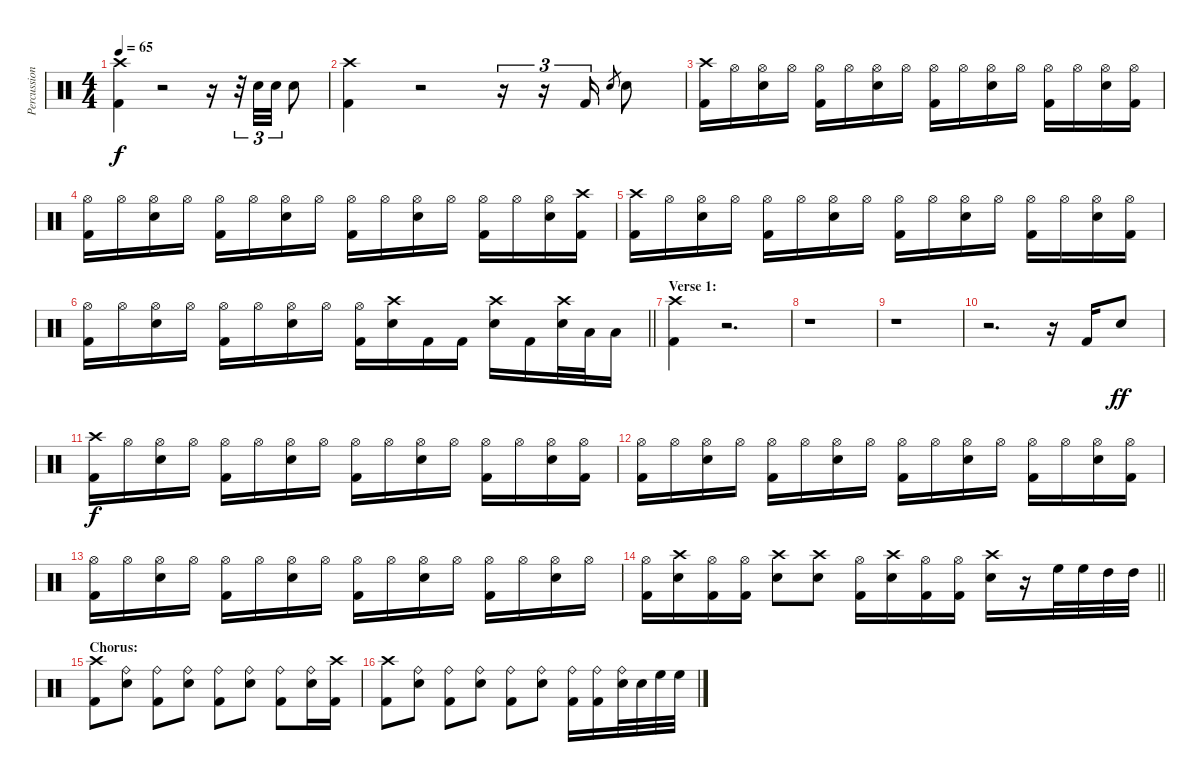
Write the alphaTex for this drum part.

\track ("Percussion" "Percussion") {instrument percussion}
\staff {score}
\articulation defaults
\ts (4 4)
\tempo 65
\clef neutral
\ks c
("Crash high (hit)" "Kick (hit) 2").4{dy f} r.2 r.16 r.32{tu (3 2)} "Electric Snare (hit)".32{tu (3 2)} "Electric Snare (hit)".32{tu (3 2)} "Electric Snare (hit)".8 |
("Crash high (hit)" "Kick (hit) 2").4 r.2 r.16{tu (3 2)} r.16{tu (3 2)} "Kick (hit) 2".16{tu (3 2)} "Electric Snare (hit)".8{gr} "Electric Snare (hit)".8 |
("Crash high (hit)" "Kick (hit) 2").16 "Hi-Hat (open)".16 ("Hi-Hat (open)" "Electric Snare (hit)").16 "Hi-Hat (open)".16 ("Hi-Hat (open)" "Kick (hit) 2").16 "Hi-Hat (open)".16 ("Hi-Hat (open)" "Electric Snare (hit)").16 "Hi-Hat (open)".16 ("Hi-Hat (open)" "Kick (hit) 2").16 "Hi-Hat (open)".16 ("Hi-Hat (open)" "Electric Snare (hit)").16 "Hi-Hat (open)".16 ("Hi-Hat (open)" "Kick (hit) 2").16 "Hi-Hat (open)".16 ("Hi-Hat (open)" "Electric Snare (hit)").16 ("Hi-Hat (open)" "Kick (hit) 2").16 |
("Hi-Hat (open)" "Kick (hit) 2").16 "Hi-Hat (open)".16 ("Hi-Hat (open)" "Electric Snare (hit)").16 "Hi-Hat (open)".16 ("Hi-Hat (open)" "Kick (hit) 2").16 "Hi-Hat (open)".16 ("Hi-Hat (open)" "Electric Snare (hit)").16 "Hi-Hat (open)".16 ("Hi-Hat (open)" "Kick (hit) 2").16 "Hi-Hat (open)".16 ("Hi-Hat (open)" "Electric Snare (hit)").16 "Hi-Hat (open)".16 ("Hi-Hat (open)" "Kick (hit) 2").16 "Hi-Hat (open)".16 ("Hi-Hat (open)" "Electric Snare (hit)").16 ("Crash high (hit)" "Kick (hit) 2").16 |
("Crash high (hit)" "Kick (hit) 2").16 "Hi-Hat (open)".16 ("Hi-Hat (open)" "Electric Snare (hit)").16 "Hi-Hat (open)".16 ("Hi-Hat (open)" "Kick (hit) 2").16 "Hi-Hat (open)".16 ("Hi-Hat (open)" "Electric Snare (hit)").16 "Hi-Hat (open)".16 ("Hi-Hat (open)" "Kick (hit) 2").16 "Hi-Hat (open)".16 ("Hi-Hat (open)" "Electric Snare (hit)").16 "Hi-Hat (open)".16 ("Hi-Hat (open)" "Kick (hit) 2").16 "Hi-Hat (open)".16 ("Hi-Hat (open)" "Electric Snare (hit)").16 ("Hi-Hat (open)" "Kick (hit) 2").16 |
\barLineRight lightlight
("Hi-Hat (open)" "Kick (hit) 2").16 "Hi-Hat (open)".16 ("Hi-Hat (open)" "Electric Snare (hit)").16 "Hi-Hat (open)".16 ("Hi-Hat (open)" "Kick (hit) 2").16 "Hi-Hat (open)".16 ("Hi-Hat (open)" "Electric Snare (hit)").16 "Hi-Hat (open)".16 ("Hi-Hat (open)" "Kick (hit) 2").16 ("Crash high (hit)" "Electric Snare (hit)").16 "Kick (hit) 2".16 "Kick (hit) 2".16 ("Crash high (hit)" "Electric Snare (hit)").16 "Kick (hit) 2".16 ("Crash high (hit)" "Electric Snare (hit)").32 "Low Tom (hit)".32 "Low Tom (hit)".16 |
\section ("" "Verse 1:")
("Crash high (hit)" "Kick (hit) 2").4 r.2{d} |
r.1 |
r.1 |
r.2{d} r.16 "Kick (hit) 2".16 "Electric Snare (hit)".8{dy ff} |
("Crash high (hit)" "Kick (hit) 2").16{dy f} "Hi-Hat (open)".16 ("Hi-Hat (open)" "Electric Snare (hit)").16 "Hi-Hat (open)".16 ("Hi-Hat (open)" "Kick (hit) 2").16 "Hi-Hat (open)".16 ("Hi-Hat (open)" "Electric Snare (hit)").16 "Hi-Hat (open)".16 ("Hi-Hat (open)" "Kick (hit) 2").16 "Hi-Hat (open)".16 ("Hi-Hat (open)" "Electric Snare (hit)").16 "Hi-Hat (open)".16 ("Hi-Hat (open)" "Kick (hit) 2").16 "Hi-Hat (open)".16 ("Hi-Hat (open)" "Electric Snare (hit)").16 ("Hi-Hat (open)" "Kick (hit) 2").16 |
("Hi-Hat (open)" "Kick (hit) 2").16 "Hi-Hat (open)".16 ("Hi-Hat (open)" "Electric Snare (hit)").16 "Hi-Hat (open)".16 ("Hi-Hat (open)" "Kick (hit) 2").16 "Hi-Hat (open)".16 ("Hi-Hat (open)" "Electric Snare (hit)").16 "Hi-Hat (open)".16 ("Hi-Hat (open)" "Kick (hit) 2").16 "Hi-Hat (open)".16 ("Hi-Hat (open)" "Electric Snare (hit)").16 "Hi-Hat (open)".16 ("Hi-Hat (open)" "Kick (hit) 2").16 "Hi-Hat (open)".16 ("Hi-Hat (open)" "Electric Snare (hit)").16 ("Hi-Hat (open)" "Kick (hit) 2").16 |
("Hi-Hat (open)" "Kick (hit) 2").16 "Hi-Hat (open)".16 ("Hi-Hat (open)" "Electric Snare (hit)").16 "Hi-Hat (open)".16 ("Hi-Hat (open)" "Kick (hit) 2").16 "Hi-Hat (open)".16 ("Hi-Hat (open)" "Electric Snare (hit)").16 "Hi-Hat (open)".16 ("Hi-Hat (open)" "Kick (hit) 2").16 "Hi-Hat (open)".16 ("Hi-Hat (open)" "Electric Snare (hit)").16 "Hi-Hat (open)".16 ("Hi-Hat (open)" "Kick (hit) 2").16 "Hi-Hat (open)".16 ("Hi-Hat (open)" "Electric Snare (hit)").16 "Hi-Hat (open)".16 |
\barLineRight lightlight
("Hi-Hat (open)" "Kick (hit) 2").16 ("Crash high (hit)" "Electric Snare (hit)").16 ("Hi-Hat (open)" "Kick (hit) 2").16 ("Hi-Hat (open)" "Kick (hit) 2").16 ("Crash high (hit)" "Electric Snare (hit)").8 ("Crash high (hit)" "Electric Snare (hit)").8 ("Hi-Hat (open)" "Kick (hit) 2").16 ("Crash high (hit)" "Electric Snare (hit)").16 ("Hi-Hat (open)" "Kick (hit) 2").16 ("Hi-Hat (open)" "Kick (hit) 2").16 ("Crash high (hit)" "Electric Snare (hit)").16 r.16 "High Floor Tom (hit)".32 "High Floor Tom (hit)".32 "High Tom (hit)".32 "High Tom (hit)".32 |
\section ("" "Chorus:")
("Crash high (hit)" "Kick (hit) 2").8 ("Ride (bell)" "Electric Snare (hit)").8 ("Ride (bell)" "Kick (hit) 2").8 ("Ride (bell)" "Electric Snare (hit)").8 ("Ride (bell)" "Kick (hit) 2").8 ("Ride (bell)" "Electric Snare (hit)").8 ("Ride (bell)" "Kick (hit) 2").8 ("Ride (bell)" "Electric Snare (hit)").16 ("Crash high (hit)" "Kick (hit) 2").16 |
("Crash high (hit)" "Kick (hit) 2").8 ("Ride (bell)" "Electric Snare (hit)").8 ("Ride (bell)" "Kick (hit) 2").8 ("Ride (bell)" "Electric Snare (hit)").8 ("Ride (bell)" "Kick (hit) 2").8 ("Ride (bell)" "Electric Snare (hit)").8 ("Ride (bell)" "Kick (hit) 2").16 ("Ride (bell)" "Kick (hit) 2").16 ("Ride (bell)" "Electric Snare (hit)").32 "Electric Snare (hit)".32 "High Floor Tom (hit)".32 "High Floor Tom (hit)".32
